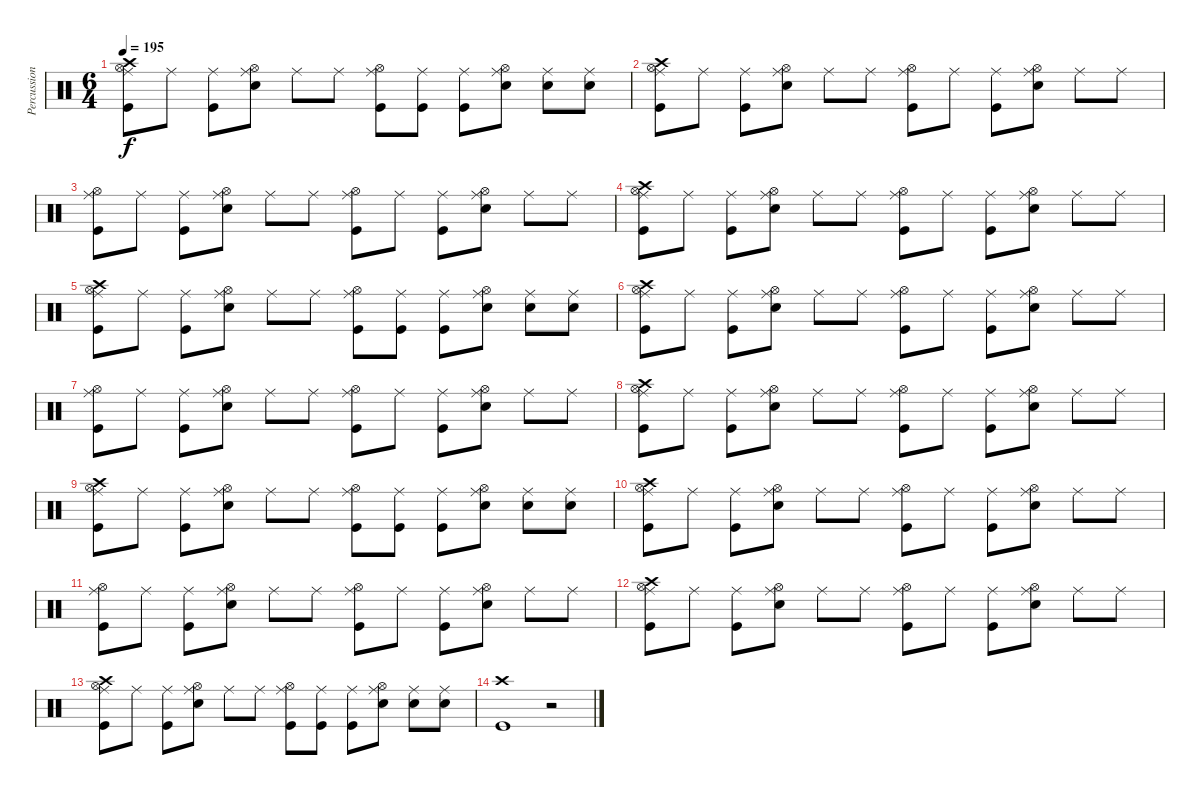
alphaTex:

\track ("Percussion" "Percussion") {instrument percussion}
\staff {score}
\articulation defaults
\ts (6 4)
\tempo 195
\clef neutral
\ks c
("Crash high (hit)" "Ride (middle)" "Hi-Hat (open)" "Kick (hit)").8{dy f} "Ride (middle)".8 ("Ride (middle)" "Kick (hit)").8 ("Ride (middle)" "Electric Snare (hit)" "Hi-Hat (open)").8 "Ride (middle)".8 "Ride (middle)".8 ("Ride (middle)" "Hi-Hat (open)" "Kick (hit)").8 ("Ride (middle)" "Kick (hit)").8 ("Ride (middle)" "Kick (hit)").8 ("Ride (middle)" "Electric Snare (hit)" "Hi-Hat (open)").8 ("Ride (middle)" "Electric Snare (hit)").8 ("Ride (middle)" "Electric Snare (hit)").8 |
("Crash high (hit)" "Ride (middle)" "Hi-Hat (open)" "Kick (hit)").8 "Ride (middle)".8 ("Ride (middle)" "Kick (hit)").8 ("Ride (middle)" "Electric Snare (hit)" "Hi-Hat (open)").8 "Ride (middle)".8 "Ride (middle)".8 ("Ride (middle)" "Hi-Hat (open)" "Kick (hit)").8 "Ride (middle)".8 ("Ride (middle)" "Kick (hit)").8 ("Ride (middle)" "Electric Snare (hit)" "Hi-Hat (open)").8 "Ride (middle)".8 "Ride (middle)".8 |
("Ride (middle)" "Hi-Hat (open)" "Kick (hit)").8 "Ride (middle)".8 ("Ride (middle)" "Kick (hit)").8 ("Ride (middle)" "Electric Snare (hit)" "Hi-Hat (open)").8 "Ride (middle)".8 "Ride (middle)".8 ("Ride (middle)" "Hi-Hat (open)" "Kick (hit)").8 "Ride (middle)".8 ("Ride (middle)" "Kick (hit)").8 ("Ride (middle)" "Electric Snare (hit)" "Hi-Hat (open)").8 "Ride (middle)".8 "Ride (middle)".8 |
("Crash high (hit)" "Ride (middle)" "Hi-Hat (open)" "Kick (hit)").8 "Ride (middle)".8 ("Ride (middle)" "Kick (hit)").8 ("Ride (middle)" "Electric Snare (hit)" "Hi-Hat (open)").8 "Ride (middle)".8 "Ride (middle)".8 ("Ride (middle)" "Hi-Hat (open)" "Kick (hit)").8 "Ride (middle)".8 ("Ride (middle)" "Kick (hit)").8 ("Ride (middle)" "Electric Snare (hit)" "Hi-Hat (open)").8 "Ride (middle)".8 "Ride (middle)".8 |
("Crash high (hit)" "Ride (middle)" "Hi-Hat (open)" "Kick (hit)").8 "Ride (middle)".8 ("Ride (middle)" "Kick (hit)").8 ("Ride (middle)" "Electric Snare (hit)" "Hi-Hat (open)").8 "Ride (middle)".8 "Ride (middle)".8 ("Ride (middle)" "Hi-Hat (open)" "Kick (hit)").8 ("Ride (middle)" "Kick (hit)").8 ("Ride (middle)" "Kick (hit)").8 ("Ride (middle)" "Electric Snare (hit)" "Hi-Hat (open)").8 ("Ride (middle)" "Electric Snare (hit)").8 ("Ride (middle)" "Electric Snare (hit)").8 |
("Crash high (hit)" "Ride (middle)" "Hi-Hat (open)" "Kick (hit)").8 "Ride (middle)".8 ("Ride (middle)" "Kick (hit)").8 ("Ride (middle)" "Electric Snare (hit)" "Hi-Hat (open)").8 "Ride (middle)".8 "Ride (middle)".8 ("Ride (middle)" "Hi-Hat (open)" "Kick (hit)").8 "Ride (middle)".8 ("Ride (middle)" "Kick (hit)").8 ("Ride (middle)" "Electric Snare (hit)" "Hi-Hat (open)").8 "Ride (middle)".8 "Ride (middle)".8 |
("Ride (middle)" "Hi-Hat (open)" "Kick (hit)").8 "Ride (middle)".8 ("Ride (middle)" "Kick (hit)").8 ("Ride (middle)" "Electric Snare (hit)" "Hi-Hat (open)").8 "Ride (middle)".8 "Ride (middle)".8 ("Ride (middle)" "Hi-Hat (open)" "Kick (hit)").8 "Ride (middle)".8 ("Ride (middle)" "Kick (hit)").8 ("Ride (middle)" "Electric Snare (hit)" "Hi-Hat (open)").8 "Ride (middle)".8 "Ride (middle)".8 |
("Crash high (hit)" "Ride (middle)" "Hi-Hat (open)" "Kick (hit)").8 "Ride (middle)".8 ("Ride (middle)" "Kick (hit)").8 ("Ride (middle)" "Electric Snare (hit)" "Hi-Hat (open)").8 "Ride (middle)".8 "Ride (middle)".8 ("Ride (middle)" "Hi-Hat (open)" "Kick (hit)").8 "Ride (middle)".8 ("Ride (middle)" "Kick (hit)").8 ("Ride (middle)" "Electric Snare (hit)" "Hi-Hat (open)").8 "Ride (middle)".8 "Ride (middle)".8 |
("Crash high (hit)" "Ride (middle)" "Hi-Hat (open)" "Kick (hit)").8 "Ride (middle)".8 ("Ride (middle)" "Kick (hit)").8 ("Ride (middle)" "Electric Snare (hit)" "Hi-Hat (open)").8 "Ride (middle)".8 "Ride (middle)".8 ("Ride (middle)" "Hi-Hat (open)" "Kick (hit)").8 ("Ride (middle)" "Kick (hit)").8 ("Ride (middle)" "Kick (hit)").8 ("Ride (middle)" "Electric Snare (hit)" "Hi-Hat (open)").8 ("Ride (middle)" "Electric Snare (hit)").8 ("Ride (middle)" "Electric Snare (hit)").8 |
("Crash high (hit)" "Ride (middle)" "Hi-Hat (open)" "Kick (hit)").8 "Ride (middle)".8 ("Ride (middle)" "Kick (hit)").8 ("Ride (middle)" "Electric Snare (hit)" "Hi-Hat (open)").8 "Ride (middle)".8 "Ride (middle)".8 ("Ride (middle)" "Hi-Hat (open)" "Kick (hit)").8 "Ride (middle)".8 ("Ride (middle)" "Kick (hit)").8 ("Ride (middle)" "Electric Snare (hit)" "Hi-Hat (open)").8 "Ride (middle)".8 "Ride (middle)".8 |
("Ride (middle)" "Hi-Hat (open)" "Kick (hit)").8 "Ride (middle)".8 ("Ride (middle)" "Kick (hit)").8 ("Ride (middle)" "Electric Snare (hit)" "Hi-Hat (open)").8 "Ride (middle)".8 "Ride (middle)".8 ("Ride (middle)" "Hi-Hat (open)" "Kick (hit)").8 "Ride (middle)".8 ("Ride (middle)" "Kick (hit)").8 ("Ride (middle)" "Electric Snare (hit)" "Hi-Hat (open)").8 "Ride (middle)".8 "Ride (middle)".8 |
("Crash high (hit)" "Ride (middle)" "Hi-Hat (open)" "Kick (hit)").8 "Ride (middle)".8 ("Ride (middle)" "Kick (hit)").8 ("Ride (middle)" "Electric Snare (hit)" "Hi-Hat (open)").8 "Ride (middle)".8 "Ride (middle)".8 ("Ride (middle)" "Hi-Hat (open)" "Kick (hit)").8 "Ride (middle)".8 ("Ride (middle)" "Kick (hit)").8 ("Ride (middle)" "Electric Snare (hit)" "Hi-Hat (open)").8 "Ride (middle)".8 "Ride (middle)".8 |
("Crash high (hit)" "Ride (middle)" "Hi-Hat (open)" "Kick (hit)").8 "Ride (middle)".8 ("Ride (middle)" "Kick (hit)").8 ("Ride (middle)" "Electric Snare (hit)" "Hi-Hat (open)").8 "Ride (middle)".8 "Ride (middle)".8 ("Ride (middle)" "Hi-Hat (open)" "Kick (hit)").8 ("Ride (middle)" "Kick (hit)").8 ("Ride (middle)" "Kick (hit)").8 ("Ride (middle)" "Electric Snare (hit)" "Hi-Hat (open)").8 ("Ride (middle)" "Electric Snare (hit)").8 ("Ride (middle)" "Electric Snare (hit)").8 |
("Crash high (hit)" "Kick (hit)").1 r.2
